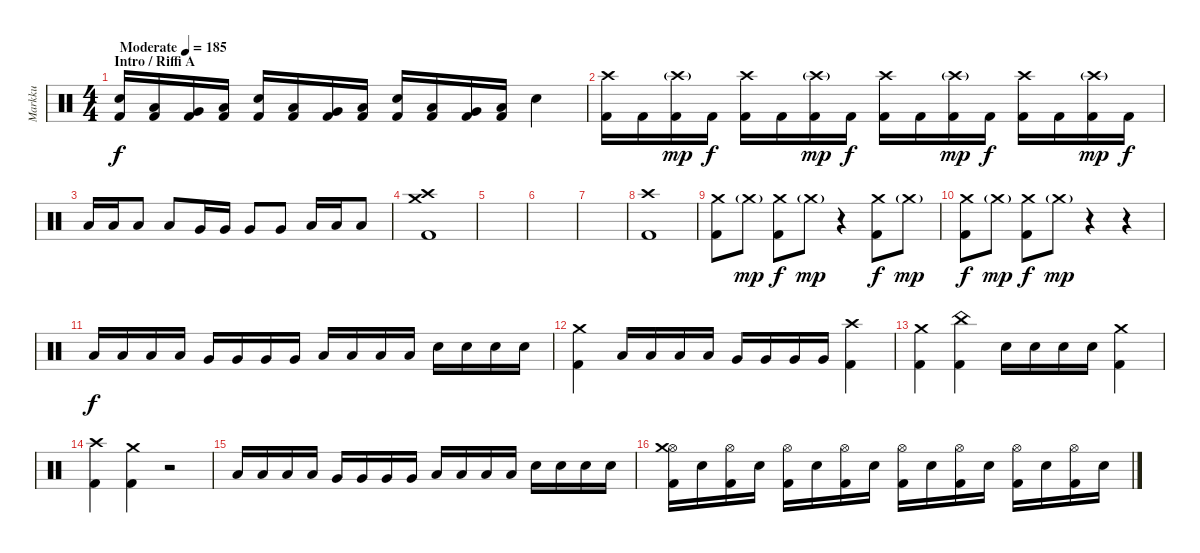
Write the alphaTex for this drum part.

\track ("Markku" "Markku") {instrument percussion}
\staff {score}
\articulation defaults
\ts (4 4)
\section ("" "Intro / Riffi A")
\tempo (185 "Moderate")
\clef neutral
\ks c
("Kick (hit) 2" "Snare (hit) 2").16{dy f} ("Kick (hit) 2" "Low Floor Tom (hit)").16 ("Kick (hit) 2" "Very Low Tom (hit)").16 ("Kick (hit) 2" "Low Floor Tom (hit)").16 ("Kick (hit) 2" "Snare (hit) 2").16 ("Kick (hit) 2" "Low Floor Tom (hit)").16 ("Kick (hit) 2" "Very Low Tom (hit)").16 ("Kick (hit) 2" "Low Floor Tom (hit)").16 ("Kick (hit) 2" "Snare (hit) 2").16 ("Kick (hit) 2" "Low Floor Tom (hit)").16 ("Kick (hit) 2" "Very Low Tom (hit)").16 ("Kick (hit) 2" "Low Floor Tom (hit)").16 "Snare (hit) 2".4 |
("Kick (hit) 2" "Crash high (hit)").16{volume 16} "Kick (hit) 2".16 ("Kick (hit) 2" "Crash high (hit)"{g}).16{dy mp volume 10} "Kick (hit) 2".16{dy f} ("Kick (hit) 2" "Crash high (hit)").16{volume 16} "Kick (hit) 2".16 ("Kick (hit) 2" "Crash high (hit)"{g}).16{dy mp volume 10} "Kick (hit) 2".16{dy f} ("Kick (hit) 2" "Crash high (hit)").16{volume 16} "Kick (hit) 2".16 ("Kick (hit) 2" "Crash high (hit)"{g}).16{dy mp volume 10} "Kick (hit) 2".16{dy f} ("Kick (hit) 2" "Crash high (hit)").16{volume 16} "Kick (hit) 2".16 ("Kick (hit) 2" "Crash high (hit)"{g}).16{dy mp volume 10} "Kick (hit) 2".16{dy f} |
"Low Tom (hit)".16{volume 14} "Low Tom (hit)".16 "Low Tom (hit)".8 "Low Tom (hit)".8 "Very Low Tom (hit)".16 "Very Low Tom (hit)".16 "Very Low Tom (hit)".8 "Very Low Tom (hit)".8 "Low Floor Tom (hit)".16 "Low Floor Tom (hit)".16 "Low Floor Tom (hit)".8 |
("Kick (hit) 2" "Crash high (hit)" "Crash medium (hit)").1 |
|
|
|
("Kick (hit) 2" "Crash high (hit)").1 |
("Kick (hit) 2" "Crash medium (hit)").8{volume 13} "Crash medium (hit)"{g}.8{dy mp volume 1} ("Kick (hit) 2" "Crash medium (hit)").8{dy f volume 13} "Crash medium (hit)"{g}.8{dy mp volume 2} r.4{volume 13} ("Kick (hit) 2" "Crash medium (hit)").8{dy f} "Crash medium (hit)"{g}.8{dy mp volume 2} |
("Kick (hit) 2" "Crash medium (hit)").8{dy f volume 13} "Crash medium (hit)"{g}.8{dy mp volume 0} ("Kick (hit) 2" "Crash medium (hit)").8{dy f volume 13} "Crash medium (hit)"{g}.8{dy mp volume 3} r.4{volume 13} r.4 |
"Low Tom (hit)".16{dy f} "Low Tom (hit)".16 "Low Tom (hit)".16 "Low Tom (hit)".16 "Very Low Tom (hit)".16 "Very Low Tom (hit)".16 "Very Low Tom (hit)".16 "Very Low Tom (hit)".16 "Low Floor Tom (hit)".16 "Low Floor Tom (hit)".16 "Low Floor Tom (hit)".16 "Low Floor Tom (hit)".16 "Snare (hit) 2".16 "Snare (hit) 2".16 "Snare (hit) 2".16 "Snare (hit) 2".16 |
("Kick (hit) 2" "Crash medium (hit)").4 "Low Tom (hit)".16 "Low Tom (hit)".16 "Low Tom (hit)".16 "Low Tom (hit)".16 "Very Low Tom (hit)".16 "Very Low Tom (hit)".16 "Very Low Tom (hit)".16 "Very Low Tom (hit)".16 ("Kick (hit) 2" "Crash high (hit)").4 |
("Kick (hit) 2" "Crash medium (hit)").4 ("Kick (hit) 2" "China (hit)").4 "Snare (hit) 2".16 "Snare (hit) 2".16 "Snare (hit) 2".16 "Snare (hit) 2".16 ("Kick (hit) 2" "Crash medium (hit)").4 |
("Kick (hit) 2" "Crash high (hit)").4 ("Kick (hit) 2" "Crash medium (hit)").4 r.2 |
"Low Tom (hit)".16 "Low Tom (hit)".16 "Low Tom (hit)".16 "Low Tom (hit)".16 "Very Low Tom (hit)".16 "Very Low Tom (hit)".16 "Very Low Tom (hit)".16 "Very Low Tom (hit)".16 "Low Floor Tom (hit)".16 "Low Floor Tom (hit)".16 "Low Floor Tom (hit)".16 "Low Floor Tom (hit)".16 "Snare (hit) 2".16 "Snare (hit) 2".16 "Snare (hit) 2".16 "Snare (hit) 2".16 |
("Kick (hit) 2" "Hi-Hat (open)" "Crash medium (hit)").16 "Snare (hit) 2".16 ("Kick (hit) 2" "Hi-Hat (open)").16 "Snare (hit) 2".16 ("Kick (hit) 2" "Hi-Hat (open)").16 "Snare (hit) 2".16 ("Kick (hit) 2" "Hi-Hat (open)").16 "Snare (hit) 2".16 ("Kick (hit) 2" "Hi-Hat (open)").16 "Snare (hit) 2".16 ("Kick (hit) 2" "Hi-Hat (open)").16 "Snare (hit) 2".16 ("Kick (hit) 2" "Hi-Hat (open)").16 "Snare (hit) 2".16 ("Kick (hit) 2" "Hi-Hat (open)").16 "Snare (hit) 2".16
